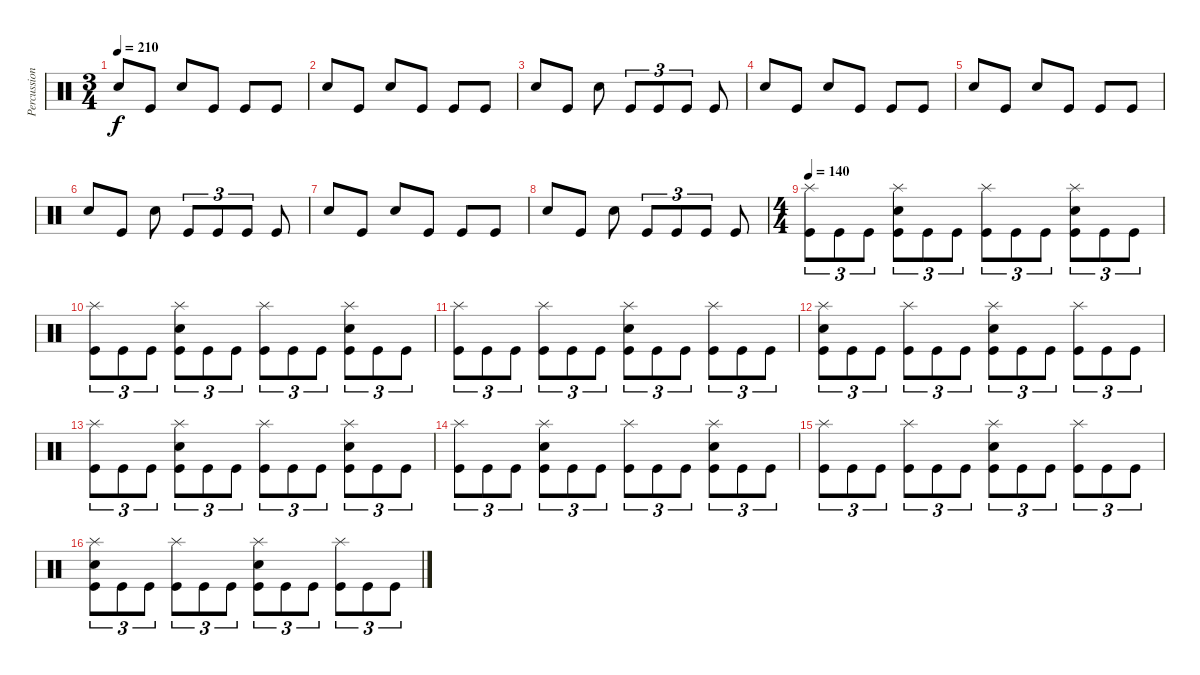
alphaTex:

\track ("Percussion" "Percussion") {instrument percussion}
\staff
\articulation defaults
\ts (3 4)
\tempo 210
\clef neutral
\ks c "Snare (hit) 2".8{dy f} "Kick (hit)".8 "Snare (hit) 2".8 "Kick (hit)".8 "Kick (hit)".8 "Kick (hit)".8
|
"Snare (hit) 2".8 "Kick (hit)".8 "Snare (hit) 2".8 "Kick (hit)".8 "Kick (hit)".8 "Kick (hit)".8 |
"Snare (hit) 2".8 "Kick (hit)".8 "Snare (hit) 2".8 "Kick (hit)".8{tu (3 2)} "Kick (hit)".8{tu (3 2)} "Kick (hit)".8{tu (3 2)} "Kick (hit)".8 |
"Snare (hit) 2".8 "Kick (hit)".8 "Snare (hit) 2".8 "Kick (hit)".8 "Kick (hit)".8 "Kick (hit)".8 |
"Snare (hit) 2".8 "Kick (hit)".8 "Snare (hit) 2".8 "Kick (hit)".8 "Kick (hit)".8 "Kick (hit)".8 |
"Snare (hit) 2".8 "Kick (hit)".8 "Snare (hit) 2".8 "Kick (hit)".8{tu (3 2)} "Kick (hit)".8{tu (3 2)} "Kick (hit)".8{tu (3 2)} "Kick (hit)".8 |
"Snare (hit) 2".8 "Kick (hit)".8 "Snare (hit) 2".8 "Kick (hit)".8 "Kick (hit)".8 "Kick (hit)".8 |
"Snare (hit) 2".8 "Kick (hit)".8 "Snare (hit) 2".8 "Kick (hit)".8{tu (3 2)} "Kick (hit)".8{tu (3 2)} "Kick (hit)".8{tu (3 2)} "Kick (hit)".8 |
\ts (4 4)
\tempo 140
("Splash (hit)" "Kick (hit)").8{tu (3 2)} "Kick (hit)".8{tu (3 2)} "Kick (hit)".8{tu (3 2)} ("Splash (hit)" "Snare (hit) 2" "Kick (hit)").8{tu (3 2)} "Kick (hit)".8{tu (3 2)} "Kick (hit)".8{tu (3 2)} ("Splash (hit)" "Kick (hit)").8{tu (3 2)} "Kick (hit)".8{tu (3 2)} "Kick (hit)".8{tu (3 2)} ("Splash (hit)" "Snare (hit) 2" "Kick (hit)").8{tu (3 2)} "Kick (hit)".8{tu (3 2)} "Kick (hit)".8{tu (3 2)} |
("Splash (hit)" "Kick (hit)").8{tu (3 2)} "Kick (hit)".8{tu (3 2)} "Kick (hit)".8{tu (3 2)} ("Splash (hit)" "Snare (hit) 2" "Kick (hit)").8{tu (3 2)} "Kick (hit)".8{tu (3 2)} "Kick (hit)".8{tu (3 2)} ("Splash (hit)" "Kick (hit)").8{tu (3 2)} "Kick (hit)".8{tu (3 2)} "Kick (hit)".8{tu (3 2)} ("Splash (hit)" "Snare (hit) 2" "Kick (hit)").8{tu (3 2)} "Kick (hit)".8{tu (3 2)} "Kick (hit)".8{tu (3 2)} |
("Splash (hit)" "Kick (hit)").8{tu (3 2)} "Kick (hit)".8{tu (3 2)} "Kick (hit)".8{tu (3 2)} ("Splash (hit)" "Kick (hit)").8{tu (3 2)} "Kick (hit)".8{tu (3 2)} "Kick (hit)".8{tu (3 2)} ("Splash (hit)" "Snare (hit) 2" "Kick (hit)").8{tu (3 2)} "Kick (hit)".8{tu (3 2)} "Kick (hit)".8{tu (3 2)} ("Splash (hit)" "Kick (hit)").8{tu (3 2)} "Kick (hit)".8{tu (3 2)} "Kick (hit)".8{tu (3 2)} |
("Splash (hit)" "Snare (hit) 2" "Kick (hit)").8{tu (3 2)} "Kick (hit)".8{tu (3 2)} "Kick (hit)".8{tu (3 2)} ("Splash (hit)" "Kick (hit)").8{tu (3 2)} "Kick (hit)".8{tu (3 2)} "Kick (hit)".8{tu (3 2)} ("Splash (hit)" "Snare (hit) 2" "Kick (hit)").8{tu (3 2)} "Kick (hit)".8{tu (3 2)} "Kick (hit)".8{tu (3 2)} ("Splash (hit)" "Kick (hit)").8{tu (3 2)} "Kick (hit)".8{tu (3 2)} "Kick (hit)".8{tu (3 2)} |
("Splash (hit)" "Kick (hit)").8{tu (3 2)} "Kick (hit)".8{tu (3 2)} "Kick (hit)".8{tu (3 2)} ("Splash (hit)" "Snare (hit) 2" "Kick (hit)").8{tu (3 2)} "Kick (hit)".8{tu (3 2)} "Kick (hit)".8{tu (3 2)} ("Splash (hit)" "Kick (hit)").8{tu (3 2)} "Kick (hit)".8{tu (3 2)} "Kick (hit)".8{tu (3 2)} ("Splash (hit)" "Snare (hit) 2" "Kick (hit)").8{tu (3 2)} "Kick (hit)".8{tu (3 2)} "Kick (hit)".8{tu (3 2)} |
("Splash (hit)" "Kick (hit)").8{tu (3 2)} "Kick (hit)".8{tu (3 2)} "Kick (hit)".8{tu (3 2)} ("Splash (hit)" "Snare (hit) 2" "Kick (hit)").8{tu (3 2)} "Kick (hit)".8{tu (3 2)} "Kick (hit)".8{tu (3 2)} ("Splash (hit)" "Kick (hit)").8{tu (3 2)} "Kick (hit)".8{tu (3 2)} "Kick (hit)".8{tu (3 2)} ("Splash (hit)" "Snare (hit) 2" "Kick (hit)").8{tu (3 2)} "Kick (hit)".8{tu (3 2)} "Kick (hit)".8{tu (3 2)} |
("Splash (hit)" "Kick (hit)").8{tu (3 2)} "Kick (hit)".8{tu (3 2)} "Kick (hit)".8{tu (3 2)} ("Splash (hit)" "Kick (hit)").8{tu (3 2)} "Kick (hit)".8{tu (3 2)} "Kick (hit)".8{tu (3 2)} ("Splash (hit)" "Snare (hit) 2" "Kick (hit)").8{tu (3 2)} "Kick (hit)".8{tu (3 2)} "Kick (hit)".8{tu (3 2)} ("Splash (hit)" "Kick (hit)").8{tu (3 2)} "Kick (hit)".8{tu (3 2)} "Kick (hit)".8{tu (3 2)} |
("Splash (hit)" "Snare (hit) 2" "Kick (hit)").8{tu (3 2)} "Kick (hit)".8{tu (3 2)} "Kick (hit)".8{tu (3 2)} ("Splash (hit)" "Kick (hit)").8{tu (3 2)} "Kick (hit)".8{tu (3 2)} "Kick (hit)".8{tu (3 2)} ("Splash (hit)" "Snare (hit) 2" "Kick (hit)").8{tu (3 2)} "Kick (hit)".8{tu (3 2)} "Kick (hit)".8{tu (3 2)} ("Splash (hit)" "Kick (hit)").8{tu (3 2)} "Kick (hit)".8{tu (3 2)} "Kick (hit)".8{tu (3 2)}
